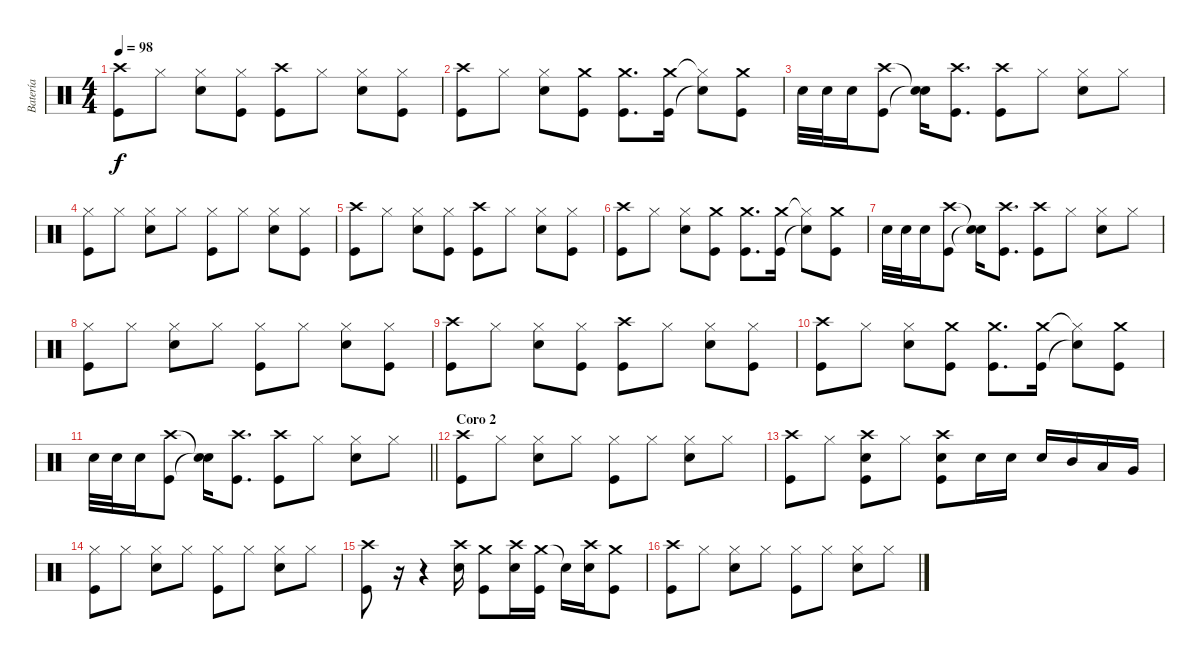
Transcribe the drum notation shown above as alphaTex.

\track ("Batería" "Batería") {instrument percussion}
\staff {score}
\articulation defaults
\ts (4 4)
\tempo 98
\clef neutral
\ks c
("Crash high (hit)" "Kick (hit)").8{dy f} "Hi-Hat (closed)".8 ("Hi-Hat (closed)" "Electric Snare (hit)").8 ("Hi-Hat (closed)" "Kick (hit)").8 ("Crash high (hit)" "Kick (hit)").8 "Hi-Hat (closed)".8 ("Hi-Hat (closed)" "Electric Snare (hit)").8 ("Hi-Hat (closed)" "Kick (hit)").8 |
("Crash high (hit)" "Kick (hit)").8 "Hi-Hat (closed)".8 ("Hi-Hat (closed)" "Electric Snare (hit)").8 ("Crash medium (hit)" "Kick (hit)").8 ("Crash medium (hit)" "Kick (hit)").8{d} ("Crash medium (hit)" "Kick (hit)").16 ("Hi-Hat (closed)"{t} "Electric Snare (hit)"{t}).8 ("Crash medium (hit)" "Kick (hit)").8 |
"Electric Snare (hit)".32 "Electric Snare (hit)".32 "Electric Snare (hit)".16 ("Crash high (hit)" "Kick (hit)").8 ("Snare (hit)"{t} "Snare (hit)"{t}).16 ("Crash high (hit)" "Kick (hit)").8{d} ("Crash high (hit)" "Kick (hit)").8 "Hi-Hat (closed)".8 ("Hi-Hat (closed)" "Electric Snare (hit)").8 "Hi-Hat (closed)".8 |
("Hi-Hat (closed)" "Kick (hit)").8 "Hi-Hat (closed)".8 ("Hi-Hat (closed)" "Electric Snare (hit)").8 "Hi-Hat (closed)".8 ("Hi-Hat (closed)" "Kick (hit)").8 "Hi-Hat (closed)".8 ("Hi-Hat (closed)" "Electric Snare (hit)").8 ("Hi-Hat (closed)" "Kick (hit)").8 |
("Crash high (hit)" "Kick (hit)").8 "Hi-Hat (closed)".8 ("Hi-Hat (closed)" "Electric Snare (hit)").8 ("Hi-Hat (closed)" "Kick (hit)").8 ("Crash high (hit)" "Kick (hit)").8 "Hi-Hat (closed)".8 ("Hi-Hat (closed)" "Electric Snare (hit)").8 ("Hi-Hat (closed)" "Kick (hit)").8 |
("Crash high (hit)" "Kick (hit)").8 "Hi-Hat (closed)".8 ("Hi-Hat (closed)" "Electric Snare (hit)").8 ("Crash medium (hit)" "Kick (hit)").8 ("Crash medium (hit)" "Kick (hit)").8{d} ("Crash medium (hit)" "Kick (hit)").16 ("Hi-Hat (closed)"{t} "Electric Snare (hit)"{t}).8 ("Crash medium (hit)" "Kick (hit)").8 |
"Electric Snare (hit)".32 "Electric Snare (hit)".32 "Electric Snare (hit)".16 ("Crash high (hit)" "Kick (hit)").8 ("Snare (hit)"{t} "Snare (hit)"{t}).16 ("Crash high (hit)" "Kick (hit)").8{d} ("Crash high (hit)" "Kick (hit)").8 "Hi-Hat (closed)".8 ("Hi-Hat (closed)" "Electric Snare (hit)").8 "Hi-Hat (closed)".8 |
("Hi-Hat (closed)" "Kick (hit)").8 "Hi-Hat (closed)".8 ("Hi-Hat (closed)" "Electric Snare (hit)").8 "Hi-Hat (closed)".8 ("Hi-Hat (closed)" "Kick (hit)").8 "Hi-Hat (closed)".8 ("Hi-Hat (closed)" "Electric Snare (hit)").8 ("Hi-Hat (closed)" "Kick (hit)").8 |
("Crash high (hit)" "Kick (hit)").8 "Hi-Hat (closed)".8 ("Hi-Hat (closed)" "Electric Snare (hit)").8 ("Hi-Hat (closed)" "Kick (hit)").8 ("Crash high (hit)" "Kick (hit)").8 "Hi-Hat (closed)".8 ("Hi-Hat (closed)" "Electric Snare (hit)").8 ("Hi-Hat (closed)" "Kick (hit)").8 |
("Crash high (hit)" "Kick (hit)").8 "Hi-Hat (closed)".8 ("Hi-Hat (closed)" "Electric Snare (hit)").8 ("Crash medium (hit)" "Kick (hit)").8 ("Crash medium (hit)" "Kick (hit)").8{d} ("Crash medium (hit)" "Kick (hit)").16 ("Hi-Hat (closed)"{t} "Electric Snare (hit)"{t}).8 ("Crash medium (hit)" "Kick (hit)").8 |
\barLineRight lightlight "Electric Snare (hit)".32 "Electric Snare (hit)".32 "Electric Snare (hit)".16
("Crash high (hit)" "Kick (hit)").8 ("Snare (hit)"{t} "Snare (hit)"{t}).16 ("Crash high (hit)" "Kick (hit)").8{d} ("Crash high (hit)" "Kick (hit)").8 "Hi-Hat (closed)".8 ("Hi-Hat (closed)" "Electric Snare (hit)").8 "Hi-Hat (closed)".8 |
\section ("" "Coro 2")
("Crash high (hit)" "Kick (hit)").8 "Hi-Hat (closed)".8 ("Hi-Hat (closed)" "Electric Snare (hit)").8 "Hi-Hat (closed)".8 ("Hi-Hat (closed)" "Kick (hit)").8 "Hi-Hat (closed)".8 ("Hi-Hat (closed)" "Electric Snare (hit)").8 "Hi-Hat (closed)".8 |
("Crash high (hit)" "Kick (hit)").8 "Hi-Hat (closed)".8 ("Crash high (hit)" "Electric Snare (hit)" "Kick (hit)").8 "Hi-Hat (closed)".8 ("Crash high (hit)" "Electric Snare (hit)" "Kick (hit)").8 "Electric Snare (hit)".16 "Electric Snare (hit)".16 "Electric Snare (hit)".16 "Mid Tom (hit)".16 "Low Tom (hit)".16 "Very Low Tom (hit)".16 |
("Hi-Hat (closed)" "Kick (hit)").8 "Hi-Hat (closed)".8 ("Hi-Hat (closed)" "Electric Snare (hit)").8 "Hi-Hat (closed)".8 ("Hi-Hat (closed)" "Kick (hit)").8 "Hi-Hat (closed)".8 ("Hi-Hat (closed)" "Electric Snare (hit)").8 "Hi-Hat (closed)".8 |
("Crash high (hit)" "Kick (hit)").8 r.16 r.4 ("Crash high (hit)" "Electric Snare (hit)").16 ("Crash medium (hit)" "Kick (hit)").8 ("Crash high (hit)" "Electric Snare (hit)").16 ("Crash medium (hit)" "Kick (hit)").16 "Snare (hit)"{t}.16 ("Crash high (hit)" "Electric Snare (hit)").16 ("Crash medium (hit)" "Kick (hit)").8 |
("Crash high (hit)" "Kick (hit)").8 "Hi-Hat (closed)".8 ("Hi-Hat (closed)" "Electric Snare (hit)").8 "Hi-Hat (closed)".8 ("Hi-Hat (closed)" "Kick (hit)").8 "Hi-Hat (closed)".8 ("Hi-Hat (closed)" "Electric Snare (hit)").8 "Hi-Hat (closed)".8
